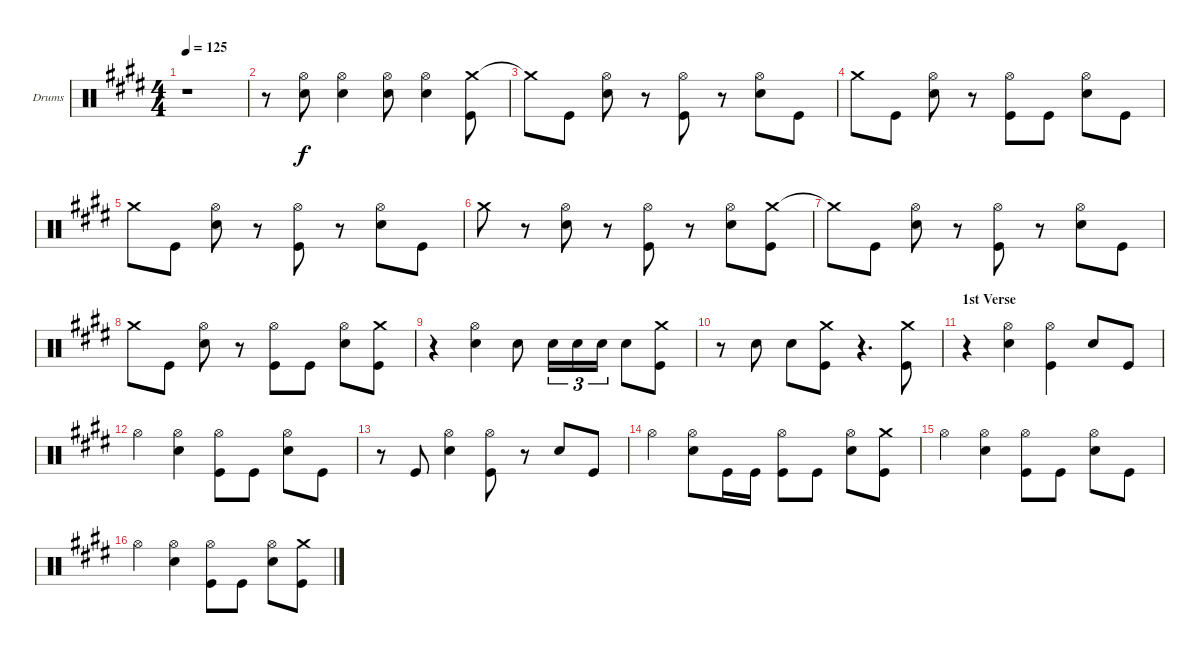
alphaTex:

\bracketExtendMode groupsimilarinstruments
\firstSystemTrackNameOrientation horizontal
\otherSystemsTrackNameOrientation horizontal
\track ("Drumkit" "Drums") {instrument percussion}
\staff {score}
\articulation defaults
\ts (4 4)
\tempo 125
\clef neutral
\ks e
r.1{dy f} |
r.8 ("Hi-Hat (open)" "Snare (hit) 2").8 ("Hi-Hat (open)" "Snare (hit) 2").4 ("Hi-Hat (open)" "Snare (hit) 2").8 ("Hi-Hat (open)" "Snare (hit) 2").4 ("Crash medium (hit)" "Kick (hit)").8 |
"Crash medium (hit)"{t}.8 "Kick (hit)".8 ("Hi-Hat (open)" "Snare (hit) 2").8 r.8 ("Hi-Hat (open)" "Kick (hit)").8 r.8 ("Hi-Hat (open)" "Snare (hit) 2").8 "Kick (hit)".8 |
"Crash medium (hit)".8 "Kick (hit)".8 ("Hi-Hat (open)" "Snare (hit) 2").8 r.8 ("Hi-Hat (open)" "Kick (hit)").8 "Kick (hit)".8 ("Hi-Hat (open)" "Snare (hit) 2").8 "Kick (hit)".8 |
"Crash medium (hit)".8 "Kick (hit)".8 ("Hi-Hat (open)" "Snare (hit) 2").8 r.8 ("Hi-Hat (open)" "Kick (hit)").8 r.8 ("Hi-Hat (open)" "Snare (hit) 2").8 "Kick (hit)".8 |
"Crash medium (hit)".8 r.8 ("Hi-Hat (open)" "Snare (hit) 2").8 r.8 ("Hi-Hat (open)" "Kick (hit)").8 r.8 ("Hi-Hat (open)" "Snare (hit) 2").8 ("Crash medium (hit)" "Kick (hit)").8 |
"Crash medium (hit)"{t}.8 "Kick (hit)".8 ("Hi-Hat (open)" "Snare (hit) 2").8 r.8 ("Hi-Hat (open)" "Kick (hit)").8 r.8 ("Hi-Hat (open)" "Snare (hit) 2").8 "Kick (hit)".8 |
"Crash medium (hit)".8 "Kick (hit)".8 ("Hi-Hat (open)" "Snare (hit) 2").8 r.8 ("Hi-Hat (open)" "Kick (hit)").8 "Kick (hit)".8 ("Hi-Hat (open)" "Snare (hit) 2").8 ("Crash medium (hit)" "Kick (hit)").8 |
r.4 ("Hi-Hat (open)" "Snare (hit) 2").4 "Snare (hit) 2".8 "Snare (hit) 2".16{tu (3 2)} "Snare (hit) 2".16{tu (3 2)} "Snare (hit) 2".16{tu (3 2)} "Snare (hit) 2".8 ("Crash medium (hit)" "Kick (hit)").8 |
r.8 "Snare (hit) 2".8 "Snare (hit) 2".8 ("Crash medium (hit)" "Kick (hit)").8 r.4{d} ("Crash medium (hit)" "Kick (hit)").8 |
\section ("" "1st Verse")
r.4 ("Hi-Hat (open)" "Snare (hit) 2").4 ("Hi-Hat (open)" "Kick (hit)").4 "Snare (hit) 2".8 "Kick (hit)".8 |
"Hi-Hat (open)".4 ("Hi-Hat (open)" "Snare (hit) 2").4 ("Hi-Hat (open)" "Kick (hit)").8 "Kick (hit)".8 ("Hi-Hat (open)" "Snare (hit) 2").8 "Kick (hit)".8 |
r.8 "Kick (hit)".8 ("Hi-Hat (open)" "Snare (hit) 2").4 ("Hi-Hat (open)" "Kick (hit)").8 r.8 "Snare (hit) 2".8 "Kick (hit)".8 |
"Hi-Hat (open)".4 ("Hi-Hat (open)" "Snare (hit) 2").8 "Kick (hit)".16 "Kick (hit)".16 ("Hi-Hat (open)" "Kick (hit)").8 "Kick (hit)".8 ("Hi-Hat (open)" "Snare (hit) 2").8 ("Crash medium (hit)" "Kick (hit)").8 |
"Hi-Hat (open)".4 ("Hi-Hat (open)" "Snare (hit) 2").4 ("Hi-Hat (open)" "Kick (hit)").8 "Kick (hit)".8 ("Hi-Hat (open)" "Snare (hit) 2").8 "Kick (hit)".8 |
"Hi-Hat (open)".4 ("Hi-Hat (open)" "Snare (hit) 2").4 ("Hi-Hat (open)" "Kick (hit)").8 "Kick (hit)".8 ("Hi-Hat (open)" "Snare (hit) 2").8 ("Crash medium (hit)" "Kick (hit)").8
